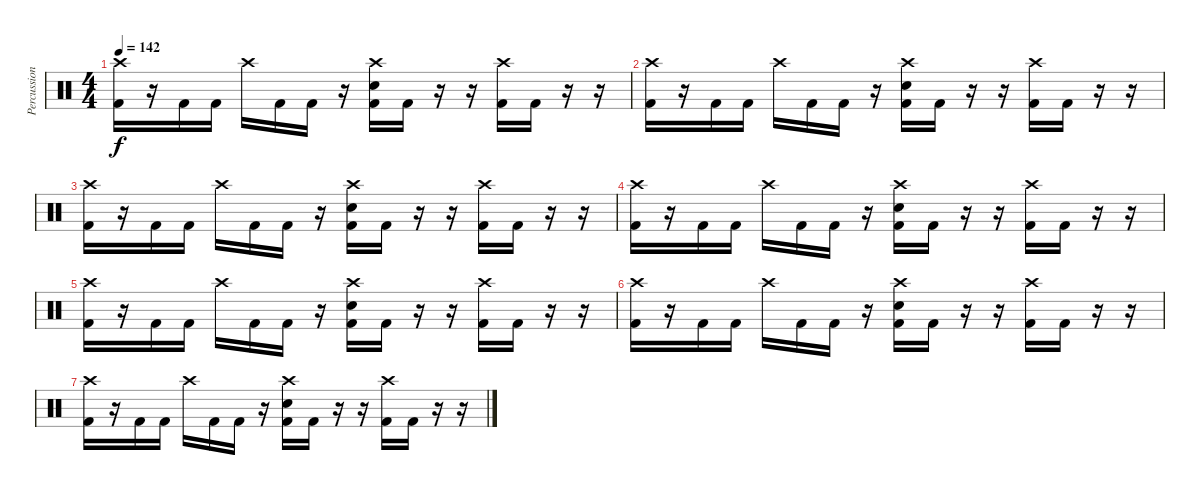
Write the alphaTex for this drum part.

\track ("Percussion" "Percussion") {instrument percussion}
\staff {score}
\articulation defaults
\ts (4 4)
\tempo 142
\clef neutral
\ks c
("Crash high (hit)" "Kick (hit) 2").16{dy f} r.16 "Kick (hit) 2".16 "Kick (hit) 2".16 "Crash high (hit)".16 "Kick (hit) 2".16 "Kick (hit) 2".16 r.16 ("Crash high (hit)" "Snare (hit) 2" "Kick (hit) 2").16 "Kick (hit) 2".16 r.16 r.16 ("Crash high (hit)" "Kick (hit) 2").16 "Kick (hit) 2".16 r.16 r.16 |
("Crash high (hit)" "Kick (hit) 2").16 r.16 "Kick (hit) 2".16 "Kick (hit) 2".16 "Crash high (hit)".16 "Kick (hit) 2".16 "Kick (hit) 2".16 r.16 ("Crash high (hit)" "Snare (hit) 2" "Kick (hit) 2").16 "Kick (hit) 2".16 r.16 r.16 ("Crash high (hit)" "Kick (hit) 2").16 "Kick (hit) 2".16 r.16 r.16 |
("Crash high (hit)" "Kick (hit) 2").16 r.16 "Kick (hit) 2".16 "Kick (hit) 2".16 "Crash high (hit)".16 "Kick (hit) 2".16 "Kick (hit) 2".16 r.16 ("Crash high (hit)" "Snare (hit) 2" "Kick (hit) 2").16 "Kick (hit) 2".16 r.16 r.16 ("Crash high (hit)" "Kick (hit) 2").16 "Kick (hit) 2".16 r.16 r.16 |
("Crash high (hit)" "Kick (hit) 2").16 r.16 "Kick (hit) 2".16 "Kick (hit) 2".16 "Crash high (hit)".16 "Kick (hit) 2".16 "Kick (hit) 2".16 r.16 ("Crash high (hit)" "Snare (hit) 2" "Kick (hit) 2").16 "Kick (hit) 2".16 r.16 r.16 ("Crash high (hit)" "Kick (hit) 2").16 "Kick (hit) 2".16 r.16 r.16 |
("Crash high (hit)" "Kick (hit) 2").16 r.16 "Kick (hit) 2".16 "Kick (hit) 2".16 "Crash high (hit)".16 "Kick (hit) 2".16 "Kick (hit) 2".16 r.16 ("Crash high (hit)" "Snare (hit) 2" "Kick (hit) 2").16 "Kick (hit) 2".16 r.16 r.16 ("Crash high (hit)" "Kick (hit) 2").16 "Kick (hit) 2".16 r.16 r.16 |
("Crash high (hit)" "Kick (hit) 2").16 r.16 "Kick (hit) 2".16 "Kick (hit) 2".16 "Crash high (hit)".16 "Kick (hit) 2".16 "Kick (hit) 2".16 r.16 ("Crash high (hit)" "Snare (hit) 2" "Kick (hit) 2").16 "Kick (hit) 2".16 r.16 r.16 ("Crash high (hit)" "Kick (hit) 2").16 "Kick (hit) 2".16 r.16 r.16 |
("Crash high (hit)" "Kick (hit) 2").16 r.16 "Kick (hit) 2".16 "Kick (hit) 2".16 "Crash high (hit)".16 "Kick (hit) 2".16 "Kick (hit) 2".16 r.16 ("Crash high (hit)" "Snare (hit) 2" "Kick (hit) 2").16 "Kick (hit) 2".16 r.16 r.16 ("Crash high (hit)" "Kick (hit) 2").16 "Kick (hit) 2".16 r.16 r.16
